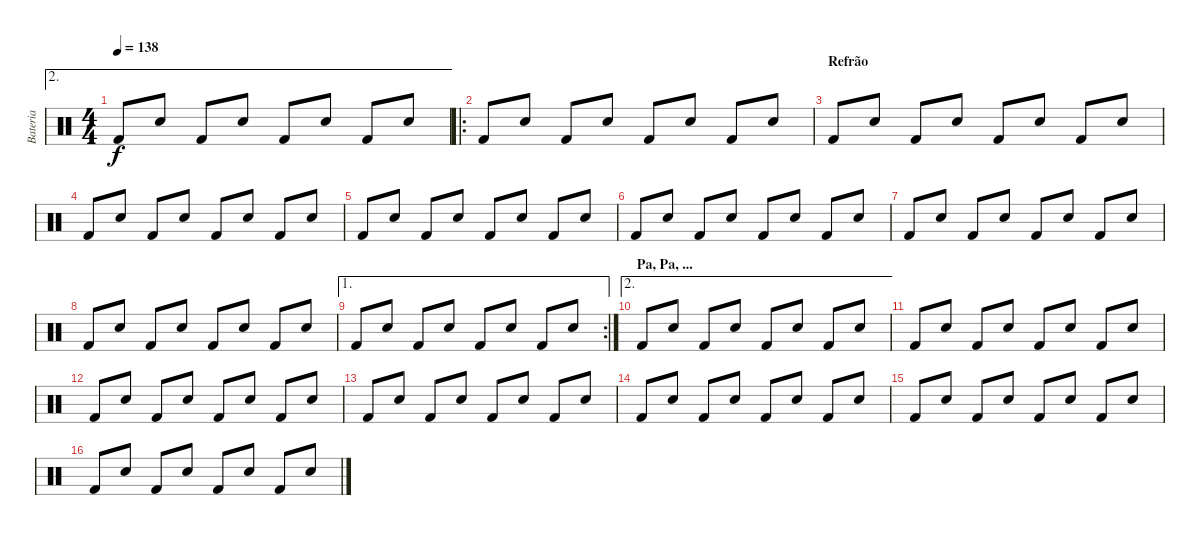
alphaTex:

\track ("Bateria" "Bateria") {instrument percussion}
\staff {score}
\articulation defaults
\ae 2
\ts (4 4)
\tempo 138
\clef neutral
\ks c "Kick (hit) 2".8{dy f} "Snare (hit) 2".8 "Kick (hit) 2".8 "Snare (hit) 2".8 "Kick (hit) 2".8 "Snare (hit) 2".8 "Kick (hit) 2".8 "Snare (hit) 2".8
|
\ro "Kick (hit) 2".8 "Snare (hit) 2".8 "Kick (hit) 2".8 "Snare (hit) 2".8 "Kick (hit) 2".8 "Snare (hit) 2".8 "Kick (hit) 2".8 "Snare (hit) 2".8
|
\section ("" "Refrão")
"Kick (hit) 2".8 "Snare (hit) 2".8 "Kick (hit) 2".8 "Snare (hit) 2".8 "Kick (hit) 2".8 "Snare (hit) 2".8 "Kick (hit) 2".8 "Snare (hit) 2".8 |
"Kick (hit) 2".8 "Snare (hit) 2".8 "Kick (hit) 2".8 "Snare (hit) 2".8 "Kick (hit) 2".8 "Snare (hit) 2".8 "Kick (hit) 2".8 "Snare (hit) 2".8 |
"Kick (hit) 2".8 "Snare (hit) 2".8 "Kick (hit) 2".8 "Snare (hit) 2".8 "Kick (hit) 2".8 "Snare (hit) 2".8 "Kick (hit) 2".8 "Snare (hit) 2".8 |
"Kick (hit) 2".8 "Snare (hit) 2".8 "Kick (hit) 2".8 "Snare (hit) 2".8 "Kick (hit) 2".8 "Snare (hit) 2".8 "Kick (hit) 2".8 "Snare (hit) 2".8 |
"Kick (hit) 2".8 "Snare (hit) 2".8 "Kick (hit) 2".8 "Snare (hit) 2".8 "Kick (hit) 2".8 "Snare (hit) 2".8 "Kick (hit) 2".8 "Snare (hit) 2".8 |
"Kick (hit) 2".8 "Snare (hit) 2".8 "Kick (hit) 2".8 "Snare (hit) 2".8 "Kick (hit) 2".8 "Snare (hit) 2".8 "Kick (hit) 2".8 "Snare (hit) 2".8 |
\ae 1
\rc 2 "Kick (hit) 2".8 "Snare (hit) 2".8 "Kick (hit) 2".8 "Snare (hit) 2".8 "Kick (hit) 2".8 "Snare (hit) 2".8 "Kick (hit) 2".8 "Snare (hit) 2".8
|
\ae 2
\section ("" "Pa, Pa, ...")
"Kick (hit) 2".8 "Snare (hit) 2".8 "Kick (hit) 2".8 "Snare (hit) 2".8 "Kick (hit) 2".8 "Snare (hit) 2".8 "Kick (hit) 2".8 "Snare (hit) 2".8 |
"Kick (hit) 2".8 "Snare (hit) 2".8 "Kick (hit) 2".8 "Snare (hit) 2".8 "Kick (hit) 2".8 "Snare (hit) 2".8 "Kick (hit) 2".8 "Snare (hit) 2".8 |
"Kick (hit) 2".8 "Snare (hit) 2".8 "Kick (hit) 2".8 "Snare (hit) 2".8 "Kick (hit) 2".8 "Snare (hit) 2".8 "Kick (hit) 2".8 "Snare (hit) 2".8 |
"Kick (hit) 2".8 "Snare (hit) 2".8 "Kick (hit) 2".8 "Snare (hit) 2".8 "Kick (hit) 2".8 "Snare (hit) 2".8 "Kick (hit) 2".8 "Snare (hit) 2".8 |
"Kick (hit) 2".8 "Snare (hit) 2".8 "Kick (hit) 2".8 "Snare (hit) 2".8 "Kick (hit) 2".8 "Snare (hit) 2".8 "Kick (hit) 2".8 "Snare (hit) 2".8 |
"Kick (hit) 2".8 "Snare (hit) 2".8 "Kick (hit) 2".8 "Snare (hit) 2".8 "Kick (hit) 2".8 "Snare (hit) 2".8 "Kick (hit) 2".8 "Snare (hit) 2".8 |
"Kick (hit) 2".8 "Snare (hit) 2".8 "Kick (hit) 2".8 "Snare (hit) 2".8 "Kick (hit) 2".8 "Snare (hit) 2".8 "Kick (hit) 2".8 "Snare (hit) 2".8
